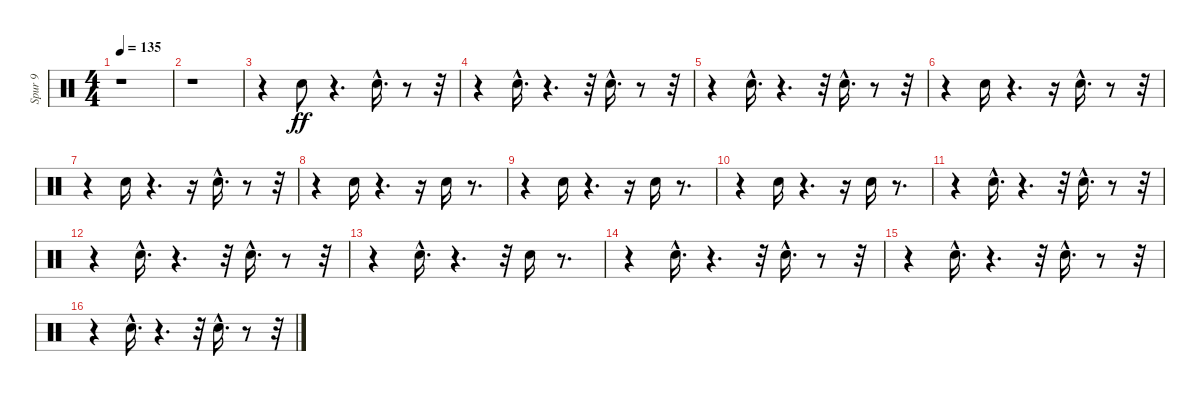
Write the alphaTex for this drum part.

\track ("Spur 9" "Spur 9") {instrument percussion}
\staff {score}
\articulation defaults
\ts (4 4)
\tempo 135
\clef neutral
\ks c
r.1{dy ff} |
r.1 |
r.4 "Electric Snare (hit)".8 r.4{d} "Electric Snare (hit)"{hac}.16{d} r.8 r.32 |
r.4 "Electric Snare (hit)"{hac}.16{d} r.4{d} r.32 "Electric Snare (hit)"{hac}.16{d} r.8 r.32 |
r.4 "Electric Snare (hit)"{hac}.16{d} r.4{d} r.32 "Electric Snare (hit)"{hac}.16{d} r.8 r.32 |
r.4 "Electric Snare (hit)".16 r.4{d} r.16 "Electric Snare (hit)"{hac}.16{d} r.8 r.32 |
r.4 "Electric Snare (hit)".16 r.4{d} r.16 "Electric Snare (hit)"{hac}.16{d} r.8 r.32 |
r.4 "Electric Snare (hit)".16 r.4{d} r.16 "Electric Snare (hit)".16 r.8{d} |
r.4 "Electric Snare (hit)".16 r.4{d} r.16 "Electric Snare (hit)".16 r.8{d} |
r.4 "Electric Snare (hit)".16 r.4{d} r.16 "Electric Snare (hit)".16 r.8{d} |
r.4 "Electric Snare (hit)"{hac}.16{d} r.4{d} r.32 "Electric Snare (hit)"{hac}.16{d} r.8 r.32 |
r.4 "Electric Snare (hit)"{hac}.16{d} r.4{d} r.32 "Electric Snare (hit)"{hac}.16{d} r.8 r.32 |
r.4 "Electric Snare (hit)"{hac}.16{d} r.4{d} r.32 "Electric Snare (hit)".16 r.8{d} |
r.4 "Electric Snare (hit)"{hac}.16{d} r.4{d} r.32 "Electric Snare (hit)"{hac}.16{d} r.8 r.32 |
r.4 "Electric Snare (hit)"{hac}.16{d} r.4{d} r.32 "Electric Snare (hit)"{hac}.16{d} r.8 r.32 |
r.4 "Electric Snare (hit)"{hac}.16{d} r.4{d} r.32 "Electric Snare (hit)"{hac}.16{d} r.8 r.32
